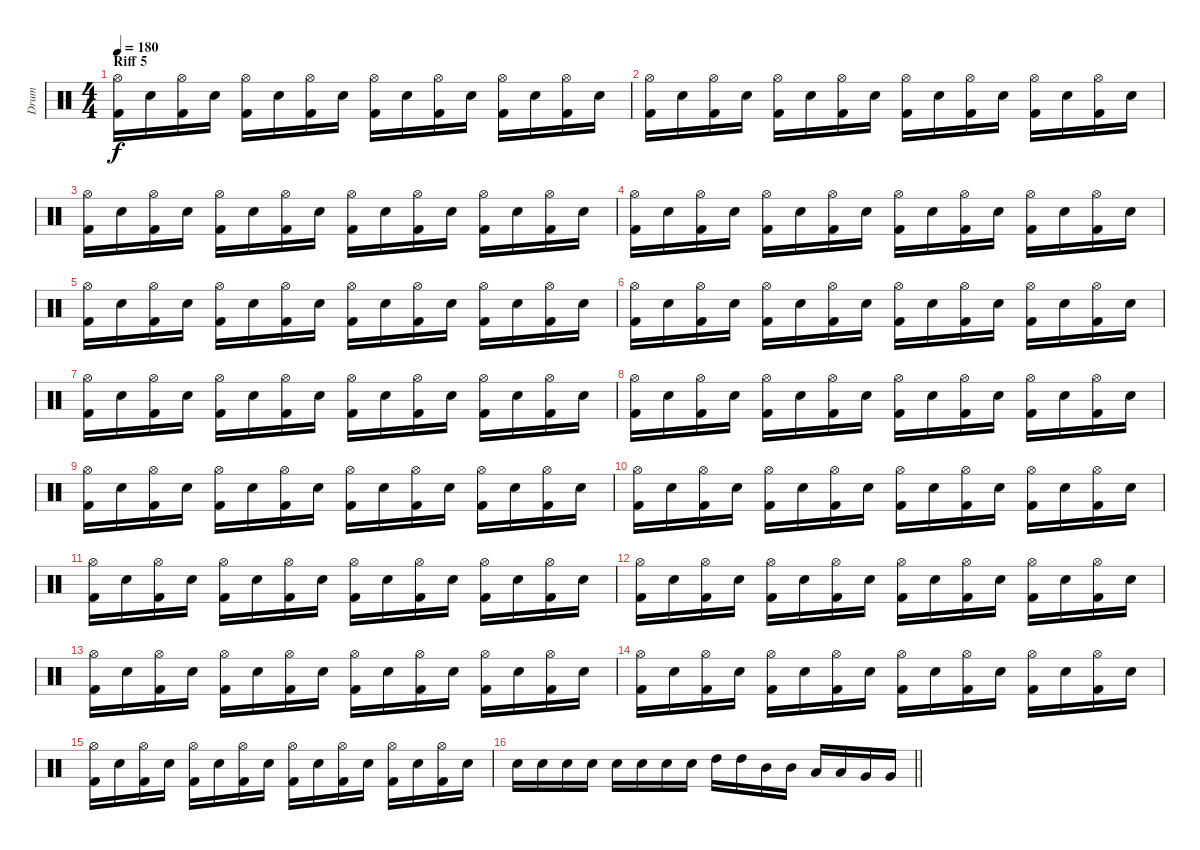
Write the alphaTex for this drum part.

\track ("Drum" "Drum") {instrument percussion}
\staff {score}
\articulation defaults
\ts (4 4)
\section ("" "Riff 5")
\tempo 180
\clef neutral
\ks c
("Hi-Hat (open)" "Kick (hit) 2").16{dy f} "Electric Snare (hit)".16 ("Hi-Hat (open)" "Kick (hit) 2").16 "Electric Snare (hit)".16 ("Hi-Hat (open)" "Kick (hit) 2").16 "Electric Snare (hit)".16 ("Hi-Hat (open)" "Kick (hit) 2").16 "Electric Snare (hit)".16 ("Hi-Hat (open)" "Kick (hit) 2").16 "Electric Snare (hit)".16 ("Hi-Hat (open)" "Kick (hit) 2").16 "Electric Snare (hit)".16 ("Hi-Hat (open)" "Kick (hit) 2").16 "Electric Snare (hit)".16 ("Hi-Hat (open)" "Kick (hit) 2").16 "Electric Snare (hit)".16 |
("Hi-Hat (open)" "Kick (hit) 2").16 "Electric Snare (hit)".16 ("Hi-Hat (open)" "Kick (hit) 2").16 "Electric Snare (hit)".16 ("Hi-Hat (open)" "Kick (hit) 2").16 "Electric Snare (hit)".16 ("Hi-Hat (open)" "Kick (hit) 2").16 "Electric Snare (hit)".16 ("Hi-Hat (open)" "Kick (hit) 2").16 "Electric Snare (hit)".16 ("Hi-Hat (open)" "Kick (hit) 2").16 "Electric Snare (hit)".16 ("Hi-Hat (open)" "Kick (hit) 2").16 "Electric Snare (hit)".16 ("Hi-Hat (open)" "Kick (hit) 2").16 "Electric Snare (hit)".16 |
("Hi-Hat (open)" "Kick (hit) 2").16 "Electric Snare (hit)".16 ("Hi-Hat (open)" "Kick (hit) 2").16 "Electric Snare (hit)".16 ("Hi-Hat (open)" "Kick (hit) 2").16 "Electric Snare (hit)".16 ("Hi-Hat (open)" "Kick (hit) 2").16 "Electric Snare (hit)".16 ("Hi-Hat (open)" "Kick (hit) 2").16 "Electric Snare (hit)".16 ("Hi-Hat (open)" "Kick (hit) 2").16 "Electric Snare (hit)".16 ("Hi-Hat (open)" "Kick (hit) 2").16 "Electric Snare (hit)".16 ("Hi-Hat (open)" "Kick (hit) 2").16 "Electric Snare (hit)".16 |
("Hi-Hat (open)" "Kick (hit) 2").16 "Electric Snare (hit)".16 ("Hi-Hat (open)" "Kick (hit) 2").16 "Electric Snare (hit)".16 ("Hi-Hat (open)" "Kick (hit) 2").16 "Electric Snare (hit)".16 ("Hi-Hat (open)" "Kick (hit) 2").16 "Electric Snare (hit)".16 ("Hi-Hat (open)" "Kick (hit) 2").16 "Electric Snare (hit)".16 ("Hi-Hat (open)" "Kick (hit) 2").16 "Electric Snare (hit)".16 ("Hi-Hat (open)" "Kick (hit) 2").16 "Electric Snare (hit)".16 ("Hi-Hat (open)" "Kick (hit) 2").16 "Electric Snare (hit)".16 |
("Hi-Hat (open)" "Kick (hit) 2").16 "Electric Snare (hit)".16 ("Hi-Hat (open)" "Kick (hit) 2").16 "Electric Snare (hit)".16 ("Hi-Hat (open)" "Kick (hit) 2").16 "Electric Snare (hit)".16 ("Hi-Hat (open)" "Kick (hit) 2").16 "Electric Snare (hit)".16 ("Hi-Hat (open)" "Kick (hit) 2").16 "Electric Snare (hit)".16 ("Hi-Hat (open)" "Kick (hit) 2").16 "Electric Snare (hit)".16 ("Hi-Hat (open)" "Kick (hit) 2").16 "Electric Snare (hit)".16 ("Hi-Hat (open)" "Kick (hit) 2").16 "Electric Snare (hit)".16 |
("Hi-Hat (open)" "Kick (hit) 2").16 "Electric Snare (hit)".16 ("Hi-Hat (open)" "Kick (hit) 2").16 "Electric Snare (hit)".16 ("Hi-Hat (open)" "Kick (hit) 2").16 "Electric Snare (hit)".16 ("Hi-Hat (open)" "Kick (hit) 2").16 "Electric Snare (hit)".16 ("Hi-Hat (open)" "Kick (hit) 2").16 "Electric Snare (hit)".16 ("Hi-Hat (open)" "Kick (hit) 2").16 "Electric Snare (hit)".16 ("Hi-Hat (open)" "Kick (hit) 2").16 "Electric Snare (hit)".16 ("Hi-Hat (open)" "Kick (hit) 2").16 "Electric Snare (hit)".16 |
("Hi-Hat (open)" "Kick (hit) 2").16 "Electric Snare (hit)".16 ("Hi-Hat (open)" "Kick (hit) 2").16 "Electric Snare (hit)".16 ("Hi-Hat (open)" "Kick (hit) 2").16 "Electric Snare (hit)".16 ("Hi-Hat (open)" "Kick (hit) 2").16 "Electric Snare (hit)".16 ("Hi-Hat (open)" "Kick (hit) 2").16 "Electric Snare (hit)".16 ("Hi-Hat (open)" "Kick (hit) 2").16 "Electric Snare (hit)".16 ("Hi-Hat (open)" "Kick (hit) 2").16 "Electric Snare (hit)".16 ("Hi-Hat (open)" "Kick (hit) 2").16 "Electric Snare (hit)".16 |
("Hi-Hat (open)" "Kick (hit) 2").16 "Electric Snare (hit)".16 ("Hi-Hat (open)" "Kick (hit) 2").16 "Electric Snare (hit)".16 ("Hi-Hat (open)" "Kick (hit) 2").16 "Electric Snare (hit)".16 ("Hi-Hat (open)" "Kick (hit) 2").16 "Electric Snare (hit)".16 ("Hi-Hat (open)" "Kick (hit) 2").16 "Electric Snare (hit)".16 ("Hi-Hat (open)" "Kick (hit) 2").16 "Electric Snare (hit)".16 ("Hi-Hat (open)" "Kick (hit) 2").16 "Electric Snare (hit)".16 ("Hi-Hat (open)" "Kick (hit) 2").16 "Electric Snare (hit)".16 |
("Hi-Hat (open)" "Kick (hit) 2").16 "Electric Snare (hit)".16 ("Hi-Hat (open)" "Kick (hit) 2").16 "Electric Snare (hit)".16 ("Hi-Hat (open)" "Kick (hit) 2").16 "Electric Snare (hit)".16 ("Hi-Hat (open)" "Kick (hit) 2").16 "Electric Snare (hit)".16 ("Hi-Hat (open)" "Kick (hit) 2").16 "Electric Snare (hit)".16 ("Hi-Hat (open)" "Kick (hit) 2").16 "Electric Snare (hit)".16 ("Hi-Hat (open)" "Kick (hit) 2").16 "Electric Snare (hit)".16 ("Hi-Hat (open)" "Kick (hit) 2").16 "Electric Snare (hit)".16 |
("Hi-Hat (open)" "Kick (hit) 2").16 "Electric Snare (hit)".16 ("Hi-Hat (open)" "Kick (hit) 2").16 "Electric Snare (hit)".16 ("Hi-Hat (open)" "Kick (hit) 2").16 "Electric Snare (hit)".16 ("Hi-Hat (open)" "Kick (hit) 2").16 "Electric Snare (hit)".16 ("Hi-Hat (open)" "Kick (hit) 2").16 "Electric Snare (hit)".16 ("Hi-Hat (open)" "Kick (hit) 2").16 "Electric Snare (hit)".16 ("Hi-Hat (open)" "Kick (hit) 2").16 "Electric Snare (hit)".16 ("Hi-Hat (open)" "Kick (hit) 2").16 "Electric Snare (hit)".16 |
("Hi-Hat (open)" "Kick (hit) 2").16 "Electric Snare (hit)".16 ("Hi-Hat (open)" "Kick (hit) 2").16 "Electric Snare (hit)".16 ("Hi-Hat (open)" "Kick (hit) 2").16 "Electric Snare (hit)".16 ("Hi-Hat (open)" "Kick (hit) 2").16 "Electric Snare (hit)".16 ("Hi-Hat (open)" "Kick (hit) 2").16 "Electric Snare (hit)".16 ("Hi-Hat (open)" "Kick (hit) 2").16 "Electric Snare (hit)".16 ("Hi-Hat (open)" "Kick (hit) 2").16 "Electric Snare (hit)".16 ("Hi-Hat (open)" "Kick (hit) 2").16 "Electric Snare (hit)".16 |
("Hi-Hat (open)" "Kick (hit) 2").16 "Electric Snare (hit)".16 ("Hi-Hat (open)" "Kick (hit) 2").16 "Electric Snare (hit)".16 ("Hi-Hat (open)" "Kick (hit) 2").16 "Electric Snare (hit)".16 ("Hi-Hat (open)" "Kick (hit) 2").16 "Electric Snare (hit)".16 ("Hi-Hat (open)" "Kick (hit) 2").16 "Electric Snare (hit)".16 ("Hi-Hat (open)" "Kick (hit) 2").16 "Electric Snare (hit)".16 ("Hi-Hat (open)" "Kick (hit) 2").16 "Electric Snare (hit)".16 ("Hi-Hat (open)" "Kick (hit) 2").16 "Electric Snare (hit)".16 |
("Hi-Hat (open)" "Kick (hit) 2").16 "Electric Snare (hit)".16 ("Hi-Hat (open)" "Kick (hit) 2").16 "Electric Snare (hit)".16 ("Hi-Hat (open)" "Kick (hit) 2").16 "Electric Snare (hit)".16 ("Hi-Hat (open)" "Kick (hit) 2").16 "Electric Snare (hit)".16 ("Hi-Hat (open)" "Kick (hit) 2").16 "Electric Snare (hit)".16 ("Hi-Hat (open)" "Kick (hit) 2").16 "Electric Snare (hit)".16 ("Hi-Hat (open)" "Kick (hit) 2").16 "Electric Snare (hit)".16 ("Hi-Hat (open)" "Kick (hit) 2").16 "Electric Snare (hit)".16 |
("Hi-Hat (open)" "Kick (hit) 2").16 "Electric Snare (hit)".16 ("Hi-Hat (open)" "Kick (hit) 2").16 "Electric Snare (hit)".16 ("Hi-Hat (open)" "Kick (hit) 2").16 "Electric Snare (hit)".16 ("Hi-Hat (open)" "Kick (hit) 2").16 "Electric Snare (hit)".16 ("Hi-Hat (open)" "Kick (hit) 2").16 "Electric Snare (hit)".16 ("Hi-Hat (open)" "Kick (hit) 2").16 "Electric Snare (hit)".16 ("Hi-Hat (open)" "Kick (hit) 2").16 "Electric Snare (hit)".16 ("Hi-Hat (open)" "Kick (hit) 2").16 "Electric Snare (hit)".16 |
("Hi-Hat (open)" "Kick (hit) 2").16 "Electric Snare (hit)".16 ("Hi-Hat (open)" "Kick (hit) 2").16 "Electric Snare (hit)".16 ("Hi-Hat (open)" "Kick (hit) 2").16 "Electric Snare (hit)".16 ("Hi-Hat (open)" "Kick (hit) 2").16 "Electric Snare (hit)".16 ("Hi-Hat (open)" "Kick (hit) 2").16 "Electric Snare (hit)".16 ("Hi-Hat (open)" "Kick (hit) 2").16 "Electric Snare (hit)".16 ("Hi-Hat (open)" "Kick (hit) 2").16 "Electric Snare (hit)".16 ("Hi-Hat (open)" "Kick (hit) 2").16 "Electric Snare (hit)".16 |
\barLineRight lightlight "Electric Snare (hit)".16 "Electric Snare (hit)".16 "Electric Snare (hit)".16 "Electric Snare (hit)".16 "Electric Snare (hit)".16 "Electric Snare (hit)".16 "Electric Snare (hit)".16 "Electric Snare (hit)".16 "High Tom (hit)".16 "High Tom (hit)".16 "Mid Tom (hit)".16 "Mid Tom (hit)".16 "Low Tom (hit)".16 "Low Tom (hit)".16 "Very Low Tom (hit)".16 "Very Low Tom (hit)".16
